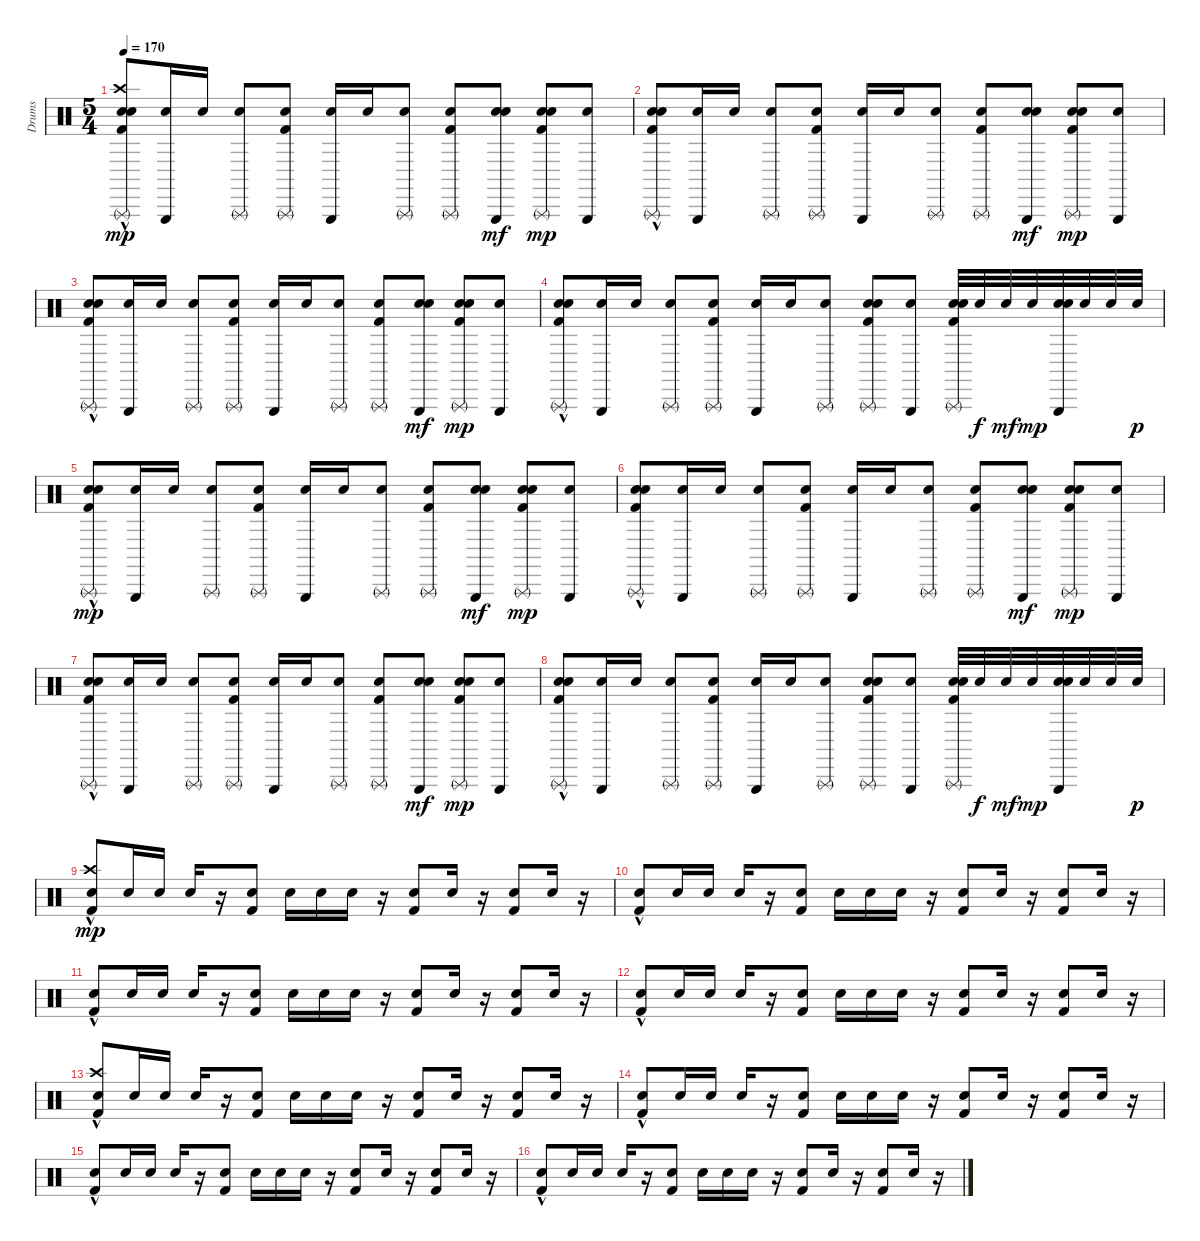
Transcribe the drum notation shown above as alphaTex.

\track ("Drums" "Drums") {instrument percussion}
\staff {score}
\articulation defaults
\ts (5 4)
\tempo 170
\clef neutral
\ks c
("Metronome (bell)" "Triangle (rnute)" "Electric Snare (hit)" "Crash high (hit)" "Kick (hit) 2"{hac}).8{dy mp} ("Triangle (hit)" "Metronome (bell)").16 "Metronome (bell)".16 ("Triangle (rnute)" "Metronome (bell)").8 ("Metronome (bell)" "Triangle (rnute)" "Kick (hit) 2").8 ("Triangle (hit)" "Metronome (bell)").16 "Metronome (bell)".16 ("Triangle (rnute)" "Metronome (bell)").8 ("Metronome (bell)" "Triangle (rnute)" "Kick (hit) 2").8 ("Triangle (hit)" "Metronome (bell)" "Electric Snare (hit)").8{dy mf} ("Metronome (bell)" "Triangle (rnute)" "Electric Snare (hit)" "Kick (hit) 2").8{dy mp} ("Triangle (hit)" "Metronome (bell)").8 |
("Metronome (bell)" "Triangle (rnute)" "Electric Snare (hit)" "Kick (hit) 2"{hac}).8 ("Triangle (hit)" "Metronome (bell)").16 "Metronome (bell)".16 ("Triangle (rnute)" "Metronome (bell)").8 ("Metronome (bell)" "Triangle (rnute)" "Kick (hit) 2").8 ("Triangle (hit)" "Metronome (bell)").16 "Metronome (bell)".16 ("Triangle (rnute)" "Metronome (bell)").8 ("Metronome (bell)" "Triangle (rnute)" "Kick (hit) 2").8 ("Triangle (hit)" "Metronome (bell)" "Electric Snare (hit)").8{dy mf} ("Metronome (bell)" "Triangle (rnute)" "Electric Snare (hit)" "Kick (hit) 2").8{dy mp} ("Triangle (hit)" "Metronome (bell)").8 |
("Metronome (bell)" "Triangle (rnute)" "Electric Snare (hit)" "Kick (hit) 2"{hac}).8 ("Triangle (hit)" "Metronome (bell)").16 "Metronome (bell)".16 ("Triangle (rnute)" "Metronome (bell)").8 ("Metronome (bell)" "Triangle (rnute)" "Kick (hit) 2").8 ("Triangle (hit)" "Metronome (bell)").16 "Metronome (bell)".16 ("Triangle (rnute)" "Metronome (bell)").8 ("Metronome (bell)" "Triangle (rnute)" "Kick (hit) 2").8 ("Triangle (hit)" "Metronome (bell)" "Electric Snare (hit)").8{dy mf} ("Metronome (bell)" "Triangle (rnute)" "Electric Snare (hit)" "Kick (hit) 2").8{dy mp} ("Triangle (hit)" "Metronome (bell)").8 |
("Metronome (bell)" "Triangle (rnute)" "Electric Snare (hit)" "Kick (hit) 2"{hac}).8 ("Triangle (hit)" "Metronome (bell)").16 "Metronome (bell)".16 ("Triangle (rnute)" "Metronome (bell)").8 ("Metronome (bell)" "Triangle (rnute)" "Kick (hit) 2").8 ("Triangle (hit)" "Metronome (bell)").16 "Metronome (bell)".16 ("Triangle (rnute)" "Metronome (bell)").8 ("Metronome (bell)" "Triangle (rnute)" "Electric Snare (hit)" "Kick (hit) 2").8 ("Triangle (hit)" "Metronome (bell)").8 ("Metronome (bell)" "Triangle (rnute)" "Electric Snare (hit)" "Kick (hit) 2").32 "Electric Snare (hit)".32{dy f} "Electric Snare (hit)".32{dy mf} "Electric Snare (hit)".32{dy mp} ("Triangle (hit)" "Metronome (bell)" "Electric Snare (hit)").32 "Electric Snare (hit)".32 "Electric Snare (hit)".32 "Electric Snare (hit)".32{dy p} |
("Metronome (bell)" "Triangle (rnute)" "Electric Snare (hit)" "Kick (hit) 2"{hac}).8{dy mp} ("Triangle (hit)" "Metronome (bell)").16 "Metronome (bell)".16 ("Triangle (rnute)" "Metronome (bell)").8 ("Metronome (bell)" "Triangle (rnute)" "Kick (hit) 2").8 ("Triangle (hit)" "Metronome (bell)").16 "Metronome (bell)".16 ("Triangle (rnute)" "Metronome (bell)").8 ("Metronome (bell)" "Triangle (rnute)" "Kick (hit) 2").8 ("Triangle (hit)" "Metronome (bell)" "Electric Snare (hit)").8{dy mf} ("Metronome (bell)" "Triangle (rnute)" "Electric Snare (hit)" "Kick (hit) 2").8{dy mp} ("Triangle (hit)" "Metronome (bell)").8 |
("Metronome (bell)" "Triangle (rnute)" "Electric Snare (hit)" "Kick (hit) 2"{hac}).8 ("Triangle (hit)" "Metronome (bell)").16 "Metronome (bell)".16 ("Triangle (rnute)" "Metronome (bell)").8 ("Metronome (bell)" "Triangle (rnute)" "Kick (hit) 2").8 ("Triangle (hit)" "Metronome (bell)").16 "Metronome (bell)".16 ("Triangle (rnute)" "Metronome (bell)").8 ("Metronome (bell)" "Triangle (rnute)" "Kick (hit) 2").8 ("Triangle (hit)" "Metronome (bell)" "Electric Snare (hit)").8{dy mf} ("Metronome (bell)" "Triangle (rnute)" "Electric Snare (hit)" "Kick (hit) 2").8{dy mp} ("Triangle (hit)" "Metronome (bell)").8 |
("Metronome (bell)" "Triangle (rnute)" "Electric Snare (hit)" "Kick (hit) 2"{hac}).8 ("Triangle (hit)" "Metronome (bell)").16 "Metronome (bell)".16 ("Triangle (rnute)" "Metronome (bell)").8 ("Metronome (bell)" "Triangle (rnute)" "Kick (hit) 2").8 ("Triangle (hit)" "Metronome (bell)").16 "Metronome (bell)".16 ("Triangle (rnute)" "Metronome (bell)").8 ("Metronome (bell)" "Triangle (rnute)" "Kick (hit) 2").8 ("Triangle (hit)" "Metronome (bell)" "Electric Snare (hit)").8{dy mf} ("Metronome (bell)" "Triangle (rnute)" "Electric Snare (hit)" "Kick (hit) 2").8{dy mp} ("Triangle (hit)" "Metronome (bell)").8 |
("Metronome (bell)" "Triangle (rnute)" "Electric Snare (hit)" "Kick (hit) 2"{hac}).8 ("Triangle (hit)" "Metronome (bell)").16 "Metronome (bell)".16 ("Triangle (rnute)" "Metronome (bell)").8 ("Metronome (bell)" "Triangle (rnute)" "Kick (hit) 2").8 ("Triangle (hit)" "Metronome (bell)").16 "Metronome (bell)".16 ("Triangle (rnute)" "Metronome (bell)").8 ("Metronome (bell)" "Triangle (rnute)" "Electric Snare (hit)" "Kick (hit) 2").8 ("Triangle (hit)" "Metronome (bell)").8 ("Metronome (bell)" "Triangle (rnute)" "Electric Snare (hit)" "Kick (hit) 2").32 "Electric Snare (hit)".32{dy f} "Electric Snare (hit)".32{dy mf} "Electric Snare (hit)".32{dy mp} ("Triangle (hit)" "Metronome (bell)" "Electric Snare (hit)").32 "Electric Snare (hit)".32 "Electric Snare (hit)".32 "Electric Snare (hit)".32{dy p} |
("Metronome (bell)" "Crash high (hit)" "Kick (hit) 2"{hac}).8{dy mp} "Metronome (bell)".16 "Metronome (bell)".16 "Metronome (bell)".16 r.16 ("Metronome (bell)" "Kick (hit) 2").8 "Metronome (bell)".16 "Metronome (bell)".16 "Metronome (bell)".16 r.16 ("Metronome (bell)" "Kick (hit) 2").8 "Metronome (bell)".16 r.16 ("Metronome (bell)" "Kick (hit) 2").8 "Metronome (bell)".16 r.16 |
("Metronome (bell)" "Kick (hit) 2"{hac}).8 "Metronome (bell)".16 "Metronome (bell)".16 "Metronome (bell)".16 r.16 ("Metronome (bell)" "Kick (hit) 2").8 "Metronome (bell)".16 "Metronome (bell)".16 "Metronome (bell)".16 r.16 ("Metronome (bell)" "Kick (hit) 2").8 "Metronome (bell)".16 r.16 ("Metronome (bell)" "Kick (hit) 2").8 "Metronome (bell)".16 r.16 |
("Metronome (bell)" "Kick (hit) 2"{hac}).8 "Metronome (bell)".16 "Metronome (bell)".16 "Metronome (bell)".16 r.16 ("Metronome (bell)" "Kick (hit) 2").8 "Metronome (bell)".16 "Metronome (bell)".16 "Metronome (bell)".16 r.16 ("Metronome (bell)" "Kick (hit) 2").8 "Metronome (bell)".16 r.16 ("Metronome (bell)" "Kick (hit) 2").8 "Metronome (bell)".16 r.16 |
("Metronome (bell)" "Kick (hit) 2"{hac}).8 "Metronome (bell)".16 "Metronome (bell)".16 "Metronome (bell)".16 r.16 ("Metronome (bell)" "Kick (hit) 2").8 "Metronome (bell)".16 "Metronome (bell)".16 "Metronome (bell)".16 r.16 ("Metronome (bell)" "Kick (hit) 2").8 "Metronome (bell)".16 r.16 ("Metronome (bell)" "Kick (hit) 2").8 "Metronome (bell)".16 r.16 |
("Metronome (bell)" "Crash high (hit)" "Kick (hit) 2"{hac}).8 "Metronome (bell)".16 "Metronome (bell)".16 "Metronome (bell)".16 r.16 ("Metronome (bell)" "Kick (hit) 2").8 "Metronome (bell)".16 "Metronome (bell)".16 "Metronome (bell)".16 r.16 ("Metronome (bell)" "Kick (hit) 2").8 "Metronome (bell)".16 r.16 ("Metronome (bell)" "Kick (hit) 2").8 "Metronome (bell)".16 r.16 |
("Metronome (bell)" "Kick (hit) 2"{hac}).8 "Metronome (bell)".16 "Metronome (bell)".16 "Metronome (bell)".16 r.16 ("Metronome (bell)" "Kick (hit) 2").8 "Metronome (bell)".16 "Metronome (bell)".16 "Metronome (bell)".16 r.16 ("Metronome (bell)" "Kick (hit) 2").8 "Metronome (bell)".16 r.16 ("Metronome (bell)" "Kick (hit) 2").8 "Metronome (bell)".16 r.16 |
("Metronome (bell)" "Kick (hit) 2"{hac}).8 "Metronome (bell)".16 "Metronome (bell)".16 "Metronome (bell)".16 r.16 ("Metronome (bell)" "Kick (hit) 2").8 "Metronome (bell)".16 "Metronome (bell)".16 "Metronome (bell)".16 r.16 ("Metronome (bell)" "Kick (hit) 2").8 "Metronome (bell)".16 r.16 ("Metronome (bell)" "Kick (hit) 2").8 "Metronome (bell)".16 r.16 |
("Metronome (bell)" "Kick (hit) 2"{hac}).8 "Metronome (bell)".16 "Metronome (bell)".16 "Metronome (bell)".16 r.16 ("Metronome (bell)" "Kick (hit) 2").8 "Metronome (bell)".16 "Metronome (bell)".16 "Metronome (bell)".16 r.16 ("Metronome (bell)" "Kick (hit) 2").8 "Metronome (bell)".16 r.16 ("Metronome (bell)" "Kick (hit) 2").8 "Metronome (bell)".16 r.16
